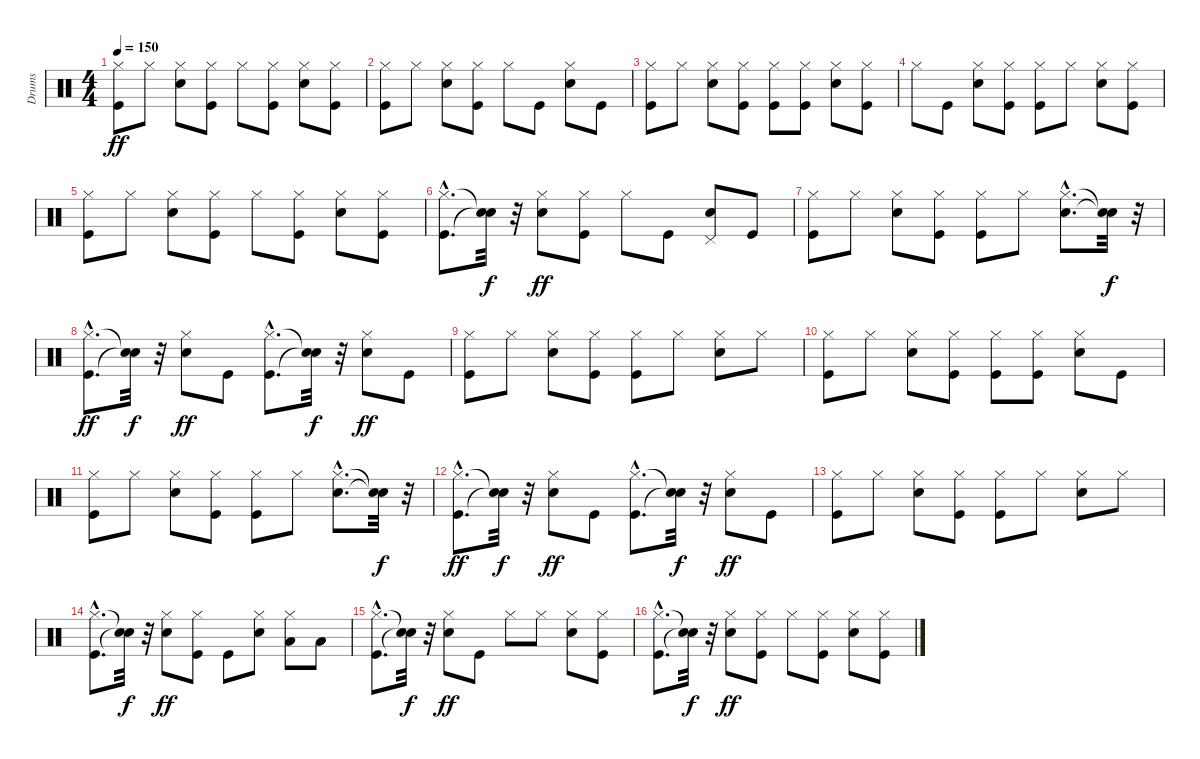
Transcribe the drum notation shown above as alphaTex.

\track ("Drums" "Drums") {instrument percussion}
\staff {score}
\articulation defaults
\ts (4 4)
\tempo 150
\clef neutral
\ks c
("Kick (hit)" "Hi-Hat (closed)").8{dy ff} "Hi-Hat (closed)".8 ("Snare (hit) 2" "Hi-Hat (closed)").8 ("Kick (hit)" "Hi-Hat (closed)").8 "Hi-Hat (closed)".8 ("Kick (hit)" "Hi-Hat (closed)").8 ("Snare (hit) 2" "Hi-Hat (closed)").8 ("Kick (hit)" "Hi-Hat (closed)").8 |
("Kick (hit)" "Hi-Hat (closed)").8 "Hi-Hat (closed)".8 ("Snare (hit) 2" "Hi-Hat (closed)").8 ("Kick (hit)" "Hi-Hat (closed)").8 "Hi-Hat (closed)".8 "Kick (hit)".8 ("Snare (hit) 2" "Hi-Hat (closed)").8 "Kick (hit)".8 |
("Kick (hit)" "Hi-Hat (closed)").8 "Hi-Hat (closed)".8 ("Snare (hit) 2" "Hi-Hat (closed)").8 ("Kick (hit)" "Hi-Hat (closed)").8 ("Kick (hit)" "Hi-Hat (closed)").8 ("Kick (hit)" "Hi-Hat (closed)").8 ("Snare (hit) 2" "Hi-Hat (closed)").8 ("Kick (hit)" "Hi-Hat (closed)").8 |
"Hi-Hat (closed)".8 "Kick (hit)".8 ("Snare (hit) 2" "Hi-Hat (closed)").8 ("Kick (hit)" "Hi-Hat (closed)").8 ("Kick (hit)" "Hi-Hat (closed)").8 "Hi-Hat (closed)".8 ("Snare (hit) 2" "Hi-Hat (closed)").8 ("Kick (hit)" "Hi-Hat (closed)").8 |
("Kick (hit)" "Hi-Hat (closed)").8 "Hi-Hat (closed)".8 ("Snare (hit) 2" "Hi-Hat (closed)").8 ("Kick (hit)" "Hi-Hat (closed)").8 "Hi-Hat (closed)".8 ("Kick (hit)" "Hi-Hat (closed)").8 ("Snare (hit) 2" "Hi-Hat (closed)").8 ("Kick (hit)" "Hi-Hat (closed)").8 |
("Kick (hit)"{hac} "Hi-Hat (closed)"{hac}).8{d} ("Snare (hit)"{t} "Snare (hit)"{t}).32{dy f} r.32 ("Snare (hit) 2" "Hi-Hat (closed)").8{dy ff} ("Kick (hit)" "Hi-Hat (closed)").8 "Hi-Hat (closed)".8 "Kick (hit)".8 ("Snare (hit) 2" "Pedal Hi-Hat (hit)").8 "Kick (hit)".8 |
("Kick (hit)" "Hi-Hat (closed)").8 "Hi-Hat (closed)".8 ("Snare (hit) 2" "Hi-Hat (closed)").8 ("Kick (hit)" "Hi-Hat (closed)").8 ("Kick (hit)" "Hi-Hat (closed)").8 "Hi-Hat (closed)".8 ("Snare (hit) 2"{hac} "Hi-Hat (closed)"{hac}).8{d} ("Snare (hit)"{t} "Snare (hit)"{t}).32{dy f} r.32 |
("Kick (hit)"{hac} "Hi-Hat (closed)"{hac}).8{d dy ff} ("Snare (hit)"{t} "Snare (hit)"{t}).32{dy f} r.32 ("Snare (hit) 2" "Hi-Hat (closed)").8{dy ff} "Kick (hit)".8 ("Kick (hit)"{hac} "Hi-Hat (closed)"{hac}).8{d} ("Snare (hit)"{t} "Snare (hit)"{t}).32{dy f} r.32 ("Snare (hit) 2" "Hi-Hat (closed)").8{dy ff} "Kick (hit)".8 |
("Kick (hit)" "Hi-Hat (closed)").8 "Hi-Hat (closed)".8 ("Snare (hit) 2" "Hi-Hat (closed)").8 ("Kick (hit)" "Hi-Hat (closed)").8 ("Kick (hit)" "Hi-Hat (closed)").8 "Hi-Hat (closed)".8 ("Snare (hit) 2" "Hi-Hat (closed)").8 "Hi-Hat (closed)".8 |
("Kick (hit)" "Hi-Hat (closed)").8 "Hi-Hat (closed)".8 ("Snare (hit) 2" "Hi-Hat (closed)").8 ("Kick (hit)" "Hi-Hat (closed)").8 ("Kick (hit)" "Hi-Hat (closed)").8 ("Kick (hit)" "Hi-Hat (closed)").8 ("Snare (hit) 2" "Hi-Hat (closed)").8 "Kick (hit)".8 |
("Kick (hit)" "Hi-Hat (closed)").8 "Hi-Hat (closed)".8 ("Snare (hit) 2" "Hi-Hat (closed)").8 ("Kick (hit)" "Hi-Hat (closed)").8 ("Kick (hit)" "Hi-Hat (closed)").8 "Hi-Hat (closed)".8 ("Snare (hit) 2"{hac} "Hi-Hat (closed)"{hac}).8{d} ("Snare (hit)"{t} "Snare (hit)"{t}).32{dy f} r.32 |
("Kick (hit)"{hac} "Hi-Hat (closed)"{hac}).8{d dy ff} ("Snare (hit)"{t} "Snare (hit)"{t}).32{dy f} r.32 ("Snare (hit) 2" "Hi-Hat (closed)").8{dy ff} "Kick (hit)".8 ("Kick (hit)"{hac} "Hi-Hat (closed)"{hac}).8{d} ("Snare (hit)"{t} "Snare (hit)"{t}).32{dy f} r.32 ("Snare (hit) 2" "Hi-Hat (closed)").8{dy ff} "Kick (hit)".8 |
("Kick (hit)" "Hi-Hat (closed)").8 "Hi-Hat (closed)".8 ("Snare (hit) 2" "Hi-Hat (closed)").8 ("Kick (hit)" "Hi-Hat (closed)").8 ("Kick (hit)" "Hi-Hat (closed)").8 "Hi-Hat (closed)".8 ("Snare (hit) 2" "Hi-Hat (closed)").8 "Hi-Hat (closed)".8 |
("Kick (hit)"{hac} "Hi-Hat (closed)"{hac}).8{d} ("Snare (hit)"{t} "Snare (hit)"{t}).32{dy f} r.32 ("Snare (hit) 2" "Hi-Hat (closed)").8{dy ff} ("Kick (hit)" "Hi-Hat (closed)").8 "Kick (hit)".8 ("Snare (hit) 2" "Hi-Hat (closed)").8 ("Hi-Hat (closed)" "Low Tom (hit)").8 "Low Floor Tom (hit)".8 |
("Kick (hit)"{hac} "Hi-Hat (closed)"{hac}).8{d} ("Snare (hit)"{t} "Snare (hit)"{t}).32{dy f} r.32 ("Snare (hit) 2" "Hi-Hat (closed)").8{dy ff} "Kick (hit)".8 "Hi-Hat (closed)".8 "Hi-Hat (closed)".8 ("Snare (hit) 2" "Hi-Hat (closed)").8 ("Kick (hit)" "Hi-Hat (closed)").8 |
("Kick (hit)"{hac} "Hi-Hat (closed)"{hac}).8{d} ("Snare (hit)"{t} "Snare (hit)"{t}).32{dy f} r.32 ("Snare (hit) 2" "Hi-Hat (closed)").8{dy ff} ("Kick (hit)" "Hi-Hat (closed)").8 "Hi-Hat (closed)".8 ("Kick (hit)" "Hi-Hat (closed)").8 ("Snare (hit) 2" "Hi-Hat (closed)").8 ("Kick (hit)" "Hi-Hat (closed)").8
